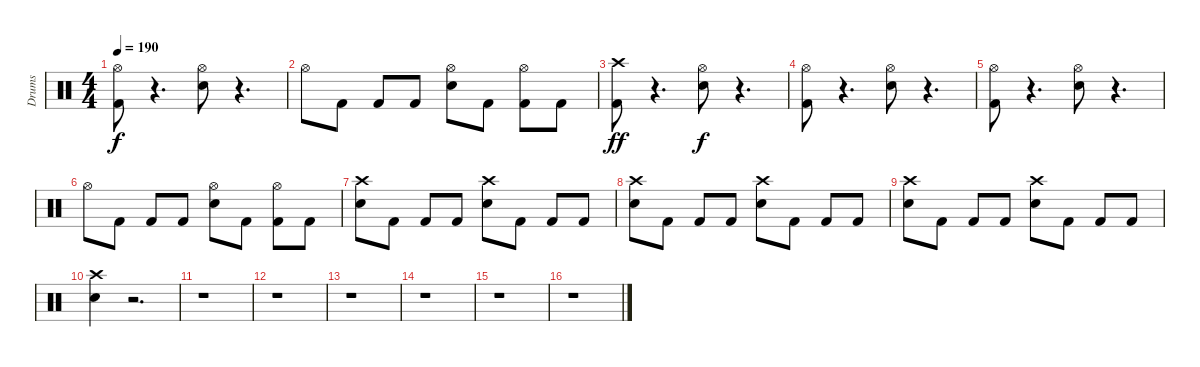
\track ("Drums" "Drums") {instrument percussion}
\staff {score}
\articulation defaults
\ts (4 4)
\tempo 190
\clef neutral
\ks c
("Kick (hit) 2" "Hi-Hat (open)").8{dy f} r.4{d} ("Snare (hit) 2" "Hi-Hat (open)").8 r.4{d} |
"Hi-Hat (open)".8 "Kick (hit) 2".8 "Kick (hit) 2".8 "Kick (hit) 2".8 ("Snare (hit) 2" "Hi-Hat (open)").8 "Kick (hit) 2".8 ("Kick (hit) 2" "Hi-Hat (open)").8 "Kick (hit) 2".8 |
("Kick (hit) 2" "Crash high (hit)").8{dy ff} r.4{d} ("Snare (hit) 2" "Hi-Hat (open)").8{dy f} r.4{d} |
("Kick (hit) 2" "Hi-Hat (open)").8 r.4{d} ("Snare (hit) 2" "Hi-Hat (open)").8 r.4{d} |
("Kick (hit) 2" "Hi-Hat (open)").8 r.4{d} ("Snare (hit) 2" "Hi-Hat (open)").8 r.4{d} |
"Hi-Hat (open)".8 "Kick (hit) 2".8 "Kick (hit) 2".8 "Kick (hit) 2".8 ("Snare (hit) 2" "Hi-Hat (open)").8 "Kick (hit) 2".8 ("Kick (hit) 2" "Hi-Hat (open)").8 "Kick (hit) 2".8 |
("Snare (hit) 2" "Crash high (hit)").8 "Kick (hit) 2".8 "Kick (hit) 2".8 "Kick (hit) 2".8 ("Snare (hit) 2" "Crash high (hit)").8 "Kick (hit) 2".8 "Kick (hit) 2".8 "Kick (hit) 2".8 |
("Snare (hit) 2" "Crash high (hit)").8 "Kick (hit) 2".8 "Kick (hit) 2".8 "Kick (hit) 2".8 ("Snare (hit) 2" "Crash high (hit)").8 "Kick (hit) 2".8 "Kick (hit) 2".8 "Kick (hit) 2".8 |
("Snare (hit) 2" "Crash high (hit)").8 "Kick (hit) 2".8 "Kick (hit) 2".8 "Kick (hit) 2".8 ("Snare (hit) 2" "Crash high (hit)").8 "Kick (hit) 2".8 "Kick (hit) 2".8 "Kick (hit) 2".8 |
("Snare (hit) 2" "Crash high (hit)").4 r.2{d} |
r.1 |
r.1 |
r.1 |
r.1 |
r.1 |
r.1
